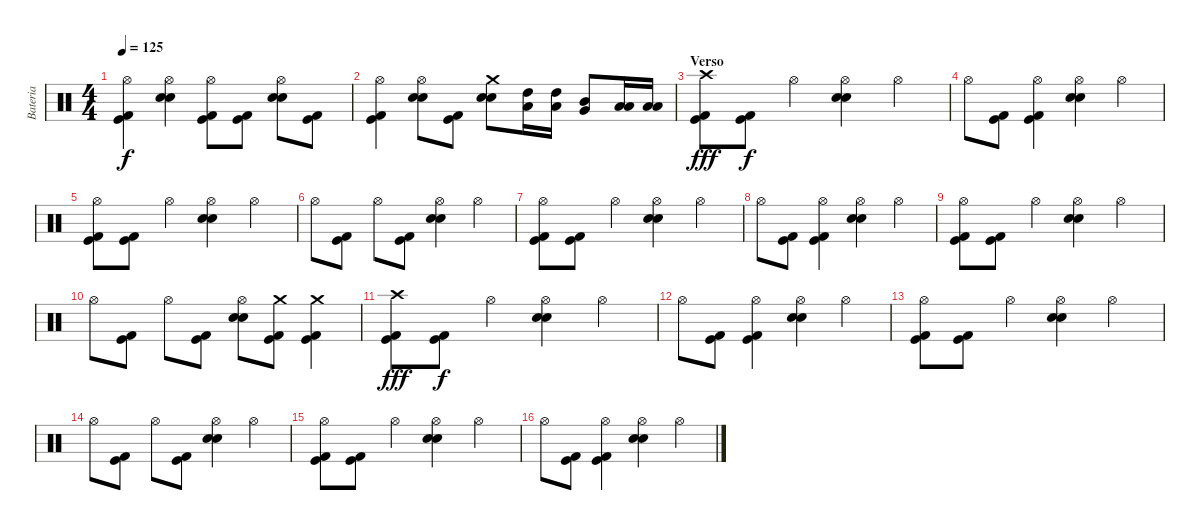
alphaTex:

\track ("Bateria" "Bateria") {instrument percussion}
\staff {score}
\articulation defaults
\ts (4 4)
\tempo 125
\clef neutral
\ks c
("Hi-Hat (open)" "Kick (hit) 2" "Kick (hit)").4{dy f} ("Hi-Hat (open)" "Electric Snare (hit)" "Snare (hit) 2").4 ("Hi-Hat (open)" "Kick (hit) 2" "Kick (hit)").8 ("Kick (hit) 2" "Kick (hit)").8 ("Hi-Hat (open)" "Electric Snare (hit)" "Snare (hit) 2").8 ("Kick (hit) 2" "Kick (hit)").8 |
("Hi-Hat (open)" "Kick (hit) 2" "Kick (hit)").4 ("Hi-Hat (open)" "Electric Snare (hit)" "Snare (hit) 2").8 ("Kick (hit) 2" "Kick (hit)").8 ("Crash medium (hit)" "Electric Snare (hit)" "Snare (hit) 2").8 ("High Tom (hit)" "Low Tom (hit)").16 ("High Tom (hit)" "Low Tom (hit)").16 ("Mid Tom (hit)" "Very Low Tom (hit)").8 ("Low Tom (hit)" "Low Floor Tom (hit)").16 ("Low Tom (hit)" "Low Floor Tom (hit)").16 |
\section ("" "Verso")
("Crash high (hit)" "Kick (hit) 2" "Kick (hit)").8{dy fff} ("Kick (hit) 2" "Kick (hit)").8{dy f} "Hi-Hat (open)".4 ("Hi-Hat (open)" "Electric Snare (hit)" "Snare (hit) 2").4 "Hi-Hat (open)".4 |
"Hi-Hat (open)".8 ("Kick (hit) 2" "Kick (hit)").8 ("Hi-Hat (open)" "Kick (hit) 2" "Kick (hit)").4 ("Hi-Hat (open)" "Electric Snare (hit)" "Snare (hit) 2").4 "Hi-Hat (open)".4 |
("Hi-Hat (open)" "Kick (hit) 2" "Kick (hit)").8 ("Kick (hit) 2" "Kick (hit)").8 "Hi-Hat (open)".4 ("Hi-Hat (open)" "Electric Snare (hit)" "Snare (hit) 2").4 "Hi-Hat (open)".4 |
"Hi-Hat (open)".8 ("Kick (hit) 2" "Kick (hit)").8 "Hi-Hat (open)".8 ("Kick (hit) 2" "Kick (hit)").8 ("Hi-Hat (open)" "Electric Snare (hit)" "Snare (hit) 2").4 "Hi-Hat (open)".4 |
("Hi-Hat (open)" "Kick (hit) 2" "Kick (hit)").8 ("Kick (hit) 2" "Kick (hit)").8 "Hi-Hat (open)".4 ("Hi-Hat (open)" "Electric Snare (hit)" "Snare (hit) 2").4 "Hi-Hat (open)".4 |
"Hi-Hat (open)".8 ("Kick (hit) 2" "Kick (hit)").8 ("Hi-Hat (open)" "Kick (hit) 2" "Kick (hit)").4 ("Hi-Hat (open)" "Electric Snare (hit)" "Snare (hit) 2").4 "Hi-Hat (open)".4 |
("Hi-Hat (open)" "Kick (hit) 2" "Kick (hit)").8 ("Kick (hit) 2" "Kick (hit)").8 "Hi-Hat (open)".4 ("Hi-Hat (open)" "Electric Snare (hit)" "Snare (hit) 2").4 "Hi-Hat (open)".4 |
"Hi-Hat (open)".8 ("Kick (hit) 2" "Kick (hit)").8 "Hi-Hat (open)".8 ("Kick (hit) 2" "Kick (hit)").8 ("Hi-Hat (open)" "Electric Snare (hit)" "Snare (hit) 2").8 ("Crash medium (hit)" "Kick (hit) 2" "Kick (hit)").8 ("Crash medium (hit)" "Kick (hit) 2" "Kick (hit)").4 |
("Crash high (hit)" "Kick (hit) 2" "Kick (hit)").8{dy fff} ("Kick (hit) 2" "Kick (hit)").8{dy f} "Hi-Hat (open)".4 ("Hi-Hat (open)" "Electric Snare (hit)" "Snare (hit) 2").4 "Hi-Hat (open)".4 |
"Hi-Hat (open)".8 ("Kick (hit) 2" "Kick (hit)").8 ("Hi-Hat (open)" "Kick (hit) 2" "Kick (hit)").4 ("Hi-Hat (open)" "Electric Snare (hit)" "Snare (hit) 2").4 "Hi-Hat (open)".4 |
("Hi-Hat (open)" "Kick (hit) 2" "Kick (hit)").8 ("Kick (hit) 2" "Kick (hit)").8 "Hi-Hat (open)".4 ("Hi-Hat (open)" "Electric Snare (hit)" "Snare (hit) 2").4 "Hi-Hat (open)".4 |
"Hi-Hat (open)".8 ("Kick (hit) 2" "Kick (hit)").8 "Hi-Hat (open)".8 ("Kick (hit) 2" "Kick (hit)").8 ("Hi-Hat (open)" "Electric Snare (hit)" "Snare (hit) 2").4 "Hi-Hat (open)".4 |
("Hi-Hat (open)" "Kick (hit) 2" "Kick (hit)").8 ("Kick (hit) 2" "Kick (hit)").8 "Hi-Hat (open)".4 ("Hi-Hat (open)" "Electric Snare (hit)" "Snare (hit) 2").4 "Hi-Hat (open)".4 |
"Hi-Hat (open)".8 ("Kick (hit) 2" "Kick (hit)").8 ("Hi-Hat (open)" "Kick (hit) 2" "Kick (hit)").4 ("Hi-Hat (open)" "Electric Snare (hit)" "Snare (hit) 2").4 "Hi-Hat (open)".4
